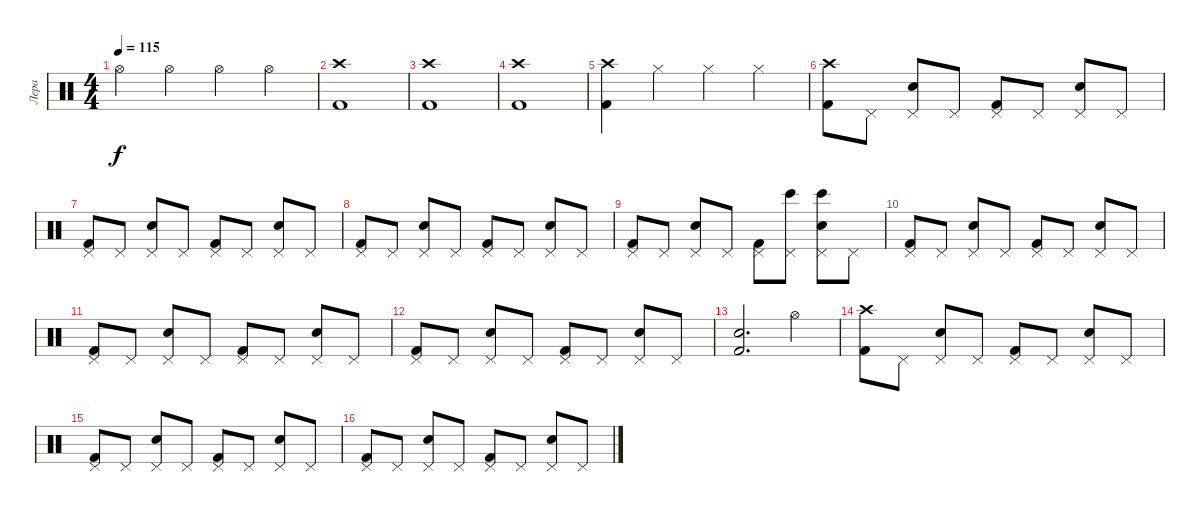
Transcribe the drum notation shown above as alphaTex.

\track ("Лера" "Лера") {instrument percussion}
\staff {score}
\articulation defaults
\ts (4 4)
\tempo 115
\clef neutral
\ks c "Hi-Hat (open)".4{dy f} "Hi-Hat (open)".4 "Hi-Hat (open)".4 "Hi-Hat (open)".4
|
("Crash high (hit)" "Kick (hit) 2").1 |
("Crash high (hit)" "Kick (hit) 2").1 |
("Crash high (hit)" "Kick (hit) 2").1 |
("Crash high (hit)" "Kick (hit) 2").4 "Hi-Hat (closed)".4 "Hi-Hat (closed)".4 "Hi-Hat (closed)".4 |
("Crash high (hit)" "Kick (hit) 2").8 "Pedal Hi-Hat (hit)".8 ("Pedal Hi-Hat (hit)" "Electric Snare (hit)").8 "Pedal Hi-Hat (hit)".8 ("Pedal Hi-Hat (hit)" "Kick (hit) 2").8 "Pedal Hi-Hat (hit)".8 ("Pedal Hi-Hat (hit)" "Electric Snare (hit)").8 "Pedal Hi-Hat (hit)".8 |
("Pedal Hi-Hat (hit)" "Kick (hit) 2").8 "Pedal Hi-Hat (hit)".8 ("Pedal Hi-Hat (hit)" "Electric Snare (hit)").8 "Pedal Hi-Hat (hit)".8 ("Pedal Hi-Hat (hit)" "Kick (hit) 2").8 "Pedal Hi-Hat (hit)".8 ("Pedal Hi-Hat (hit)" "Electric Snare (hit)").8 "Pedal Hi-Hat (hit)".8 |
("Pedal Hi-Hat (hit)" "Kick (hit) 2").8 "Pedal Hi-Hat (hit)".8 ("Pedal Hi-Hat (hit)" "Electric Snare (hit)").8 "Pedal Hi-Hat (hit)".8 ("Pedal Hi-Hat (hit)" "Kick (hit) 2").8 "Pedal Hi-Hat (hit)".8 ("Pedal Hi-Hat (hit)" "Electric Snare (hit)").8 "Pedal Hi-Hat (hit)".8 |
("Pedal Hi-Hat (hit)" "Kick (hit) 2").8 "Pedal Hi-Hat (hit)".8 ("Pedal Hi-Hat (hit)" "Electric Snare (hit)").8 "Pedal Hi-Hat (hit)".8 ("Pedal Hi-Hat (hit)" "Kick (hit) 2").8 ("Pedal Hi-Hat (hit)" "Bongo High (hit)").8 ("Pedal Hi-Hat (hit)" "Electric Snare (hit)" "Bongo High (hit)").8 "Pedal Hi-Hat (hit)".8 |
("Pedal Hi-Hat (hit)" "Kick (hit) 2").8 "Pedal Hi-Hat (hit)".8 ("Pedal Hi-Hat (hit)" "Electric Snare (hit)").8 "Pedal Hi-Hat (hit)".8 ("Pedal Hi-Hat (hit)" "Kick (hit) 2").8 "Pedal Hi-Hat (hit)".8 ("Pedal Hi-Hat (hit)" "Electric Snare (hit)").8 "Pedal Hi-Hat (hit)".8 |
("Pedal Hi-Hat (hit)" "Kick (hit) 2").8 "Pedal Hi-Hat (hit)".8 ("Pedal Hi-Hat (hit)" "Electric Snare (hit)").8 "Pedal Hi-Hat (hit)".8 ("Pedal Hi-Hat (hit)" "Kick (hit) 2").8 "Pedal Hi-Hat (hit)".8 ("Pedal Hi-Hat (hit)" "Electric Snare (hit)").8 "Pedal Hi-Hat (hit)".8 |
("Pedal Hi-Hat (hit)" "Kick (hit) 2").8 "Pedal Hi-Hat (hit)".8 ("Pedal Hi-Hat (hit)" "Electric Snare (hit)").8 "Pedal Hi-Hat (hit)".8 ("Pedal Hi-Hat (hit)" "Kick (hit) 2").8 "Pedal Hi-Hat (hit)".8 ("Pedal Hi-Hat (hit)" "Electric Snare (hit)").8 "Pedal Hi-Hat (hit)".8 |
("Electric Snare (hit)" "Kick (hit) 2").2{d} "Hi-Hat (open)".4 |
("Crash high (hit)" "Kick (hit) 2").8 "Pedal Hi-Hat (hit)".8 ("Pedal Hi-Hat (hit)" "Electric Snare (hit)").8 "Pedal Hi-Hat (hit)".8 ("Pedal Hi-Hat (hit)" "Kick (hit) 2").8 "Pedal Hi-Hat (hit)".8 ("Pedal Hi-Hat (hit)" "Electric Snare (hit)").8 "Pedal Hi-Hat (hit)".8 |
("Pedal Hi-Hat (hit)" "Kick (hit) 2").8 "Pedal Hi-Hat (hit)".8 ("Pedal Hi-Hat (hit)" "Electric Snare (hit)").8 "Pedal Hi-Hat (hit)".8 ("Pedal Hi-Hat (hit)" "Kick (hit) 2").8 "Pedal Hi-Hat (hit)".8 ("Pedal Hi-Hat (hit)" "Electric Snare (hit)").8 "Pedal Hi-Hat (hit)".8 |
("Pedal Hi-Hat (hit)" "Kick (hit) 2").8 "Pedal Hi-Hat (hit)".8 ("Pedal Hi-Hat (hit)" "Electric Snare (hit)").8 "Pedal Hi-Hat (hit)".8 ("Pedal Hi-Hat (hit)" "Kick (hit) 2").8 "Pedal Hi-Hat (hit)".8 ("Pedal Hi-Hat (hit)" "Electric Snare (hit)").8 "Pedal Hi-Hat (hit)".8
